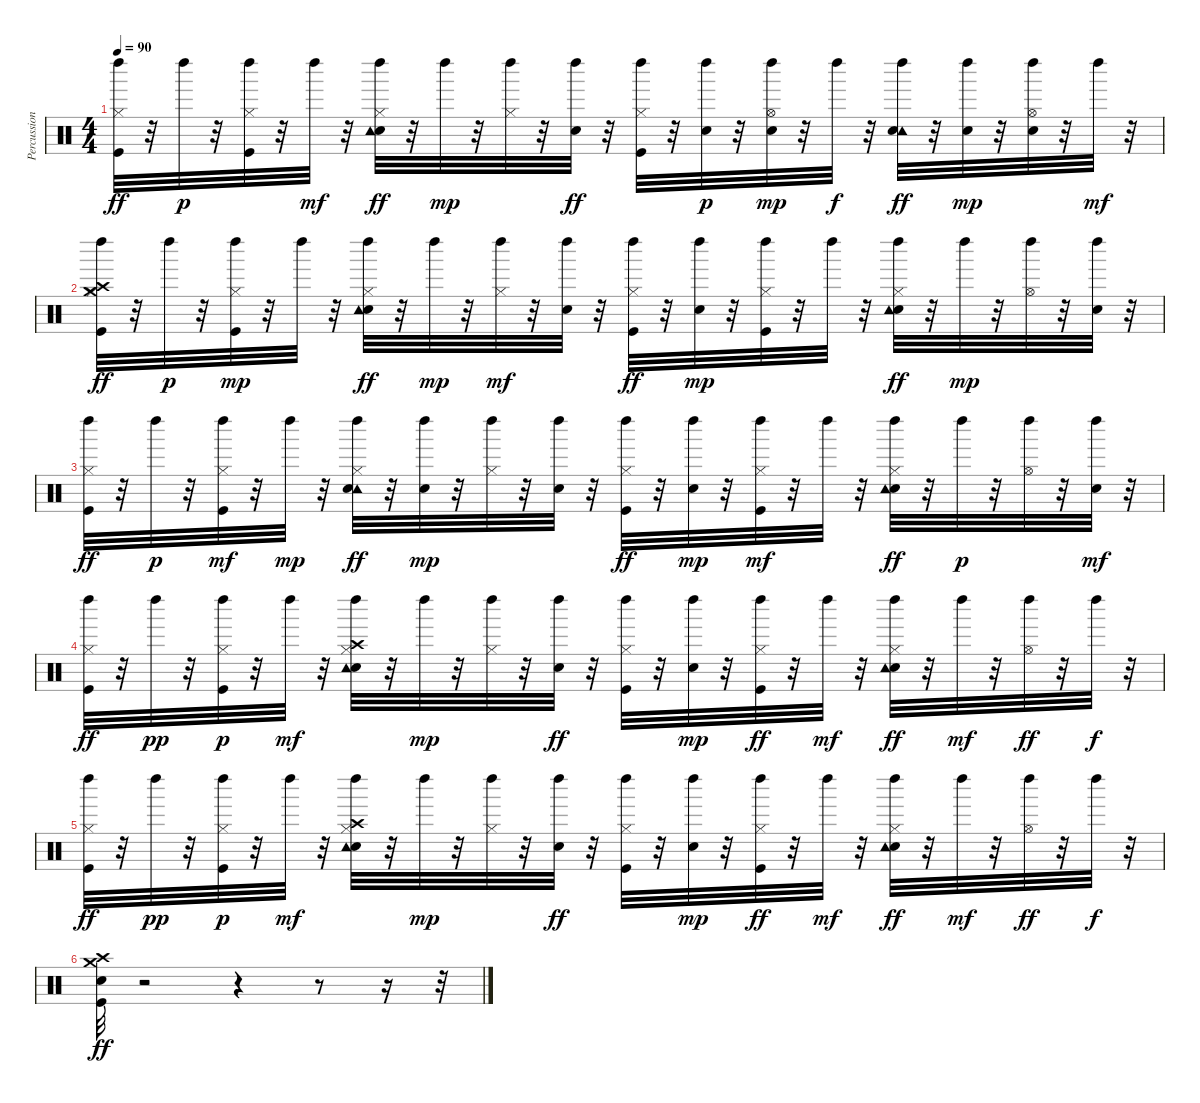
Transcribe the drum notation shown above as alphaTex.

\track ("Percussions" "Percussion") {instrument percussion}
\staff {score}
\articulation defaults
\ts (4 4)
\tempo 90
\clef neutral
\ks c
("Kick (hit)" "Left Maraca (hit)" "Hi-Hat (closed)").32{dy ff} r.32 "Left Maraca (hit)".32{dy p} r.32 ("Hi-Hat (closed)" "Kick (hit)" "Left Maraca (hit)").32 r.32 "Left Maraca (hit)".32{dy mf} r.32 ("Electric Snare (hit)" "Tambourine (hit)" "Hi-Hat (closed)" "Left Maraca (hit)").32{dy ff} r.32 "Left Maraca (hit)".32{dy mp} r.32 ("Hi-Hat (closed)" "Left Maraca (hit)").32 r.32 ("Left Maraca (hit)" "Electric Snare (hit)").32{dy ff} r.32 ("Kick (hit)" "Hi-Hat (closed)" "Left Maraca (hit)").32 r.32 ("Electric Snare (hit)" "Left Maraca (hit)").32{dy p} r.32 ("Hi-Hat (open)" "Electric Snare (hit)" "Left Maraca (hit)").32{dy mp} r.32 "Left Maraca (hit)".32{dy f} r.32 ("Tambourine (hit)" "Left Maraca (hit)" "Electric Snare (hit)").32{dy ff} r.32 ("Electric Snare (hit)" "Left Maraca (hit)").32{dy mp} r.32 ("Hi-Hat (open)" "Electric Snare (hit)" "Left Maraca (hit)").32 r.32 "Left Maraca (hit)".32{dy mf} r.32 |
("Hi-Hat (closed)" "Crash medium (hit)" "Crash high (hit)" "Kick (hit)" "Left Maraca (hit)").32{dy ff} r.32 "Left Maraca (hit)".32{dy p} r.32 ("Hi-Hat (closed)" "Kick (hit)" "Left Maraca (hit)").32{dy mp} r.32 "Left Maraca (hit)".32 r.32 ("Hi-Hat (closed)" "Electric Snare (hit)" "Tambourine (hit)" "Left Maraca (hit)").32{dy ff} r.32 "Left Maraca (hit)".32{dy mp} r.32 ("Hi-Hat (closed)" "Left Maraca (hit)").32{dy mf} r.32 ("Electric Snare (hit)" "Left Maraca (hit)").32 r.32 ("Kick (hit)" "Hi-Hat (closed)" "Left Maraca (hit)").32{dy ff} r.32 ("Electric Snare (hit)" "Left Maraca (hit)").32{dy mp} r.32 ("Hi-Hat (closed)" "Kick (hit)" "Left Maraca (hit)").32 r.32 "Left Maraca (hit)".32 r.32 ("Electric Snare (hit)" "Left Maraca (hit)" "Hi-Hat (closed)" "Tambourine (hit)").32{dy ff} r.32 "Left Maraca (hit)".32{dy mp} r.32 ("Hi-Hat (open)" "Left Maraca (hit)").32 r.32 ("Electric Snare (hit)" "Left Maraca (hit)").32 r.32 |
("Hi-Hat (closed)" "Kick (hit)" "Left Maraca (hit)").32{dy ff} r.32 "Left Maraca (hit)".32{dy p} r.32 ("Hi-Hat (closed)" "Kick (hit)" "Left Maraca (hit)").32{dy mf} r.32 "Left Maraca (hit)".32{dy mp} r.32 ("Hi-Hat (closed)" "Tambourine (hit)" "Electric Snare (hit)" "Left Maraca (hit)").32{dy ff} r.32 ("Electric Snare (hit)" "Left Maraca (hit)").32{dy mp} r.32 ("Hi-Hat (closed)" "Left Maraca (hit)").32 r.32 ("Electric Snare (hit)" "Left Maraca (hit)").32 r.32 ("Kick (hit)" "Left Maraca (hit)" "Hi-Hat (closed)").32{dy ff} r.32 ("Electric Snare (hit)" "Left Maraca (hit)").32{dy mp} r.32 ("Kick (hit)" "Left Maraca (hit)" "Hi-Hat (closed)").32{dy mf} r.32 "Left Maraca (hit)".32 r.32 ("Electric Snare (hit)" "Tambourine (hit)" "Left Maraca (hit)" "Hi-Hat (closed)").32{dy ff} r.32 "Left Maraca (hit)".32{dy p} r.32 ("Hi-Hat (open)" "Left Maraca (hit)").32 r.32 ("Electric Snare (hit)" "Left Maraca (hit)").32{dy mf} r.32 |
("Left Maraca (hit)" "Hi-Hat (closed)" "Kick (hit)").32{dy ff} r.32 "Left Maraca (hit)".32{dy pp} r.32 ("Hi-Hat (closed)" "Kick (hit)" "Left Maraca (hit)").32{dy p} r.32 "Left Maraca (hit)".32{dy mf} r.32 ("Hi-Hat (closed)" "Electric Snare (hit)" "Left Maraca (hit)" "Crash high (hit)" "Tambourine (hit)").32 r.32 "Left Maraca (hit)".32{dy mp} r.32 ("Hi-Hat (closed)" "Left Maraca (hit)").32 r.32 ("Electric Snare (hit)" "Left Maraca (hit)").32{dy ff} r.32 ("Hi-Hat (closed)" "Kick (hit)" "Left Maraca (hit)").32 r.32 ("Electric Snare (hit)" "Left Maraca (hit)").32{dy mp} r.32 ("Hi-Hat (closed)" "Left Maraca (hit)" "Kick (hit)").32{dy ff} r.32 "Left Maraca (hit)".32{dy mf} r.32 ("Hi-Hat (closed)" "Electric Snare (hit)" "Tambourine (hit)" "Left Maraca (hit)").32{dy ff} r.32 "Left Maraca (hit)".32{dy mf} r.32 ("Hi-Hat (open)" "Left Maraca (hit)").32{dy ff} r.32 "Left Maraca (hit)".32{dy f} r.32 |
("Left Maraca (hit)" "Hi-Hat (closed)" "Kick (hit)").32{dy ff} r.32 "Left Maraca (hit)".32{dy pp} r.32 ("Hi-Hat (closed)" "Kick (hit)" "Left Maraca (hit)").32{dy p} r.32 "Left Maraca (hit)".32{dy mf} r.32 ("Hi-Hat (closed)" "Electric Snare (hit)" "Left Maraca (hit)" "Crash high (hit)" "Tambourine (hit)").32 r.32 "Left Maraca (hit)".32{dy mp} r.32 ("Hi-Hat (closed)" "Left Maraca (hit)").32 r.32 ("Electric Snare (hit)" "Left Maraca (hit)").32{dy ff} r.32 ("Hi-Hat (closed)" "Kick (hit)" "Left Maraca (hit)").32 r.32 ("Electric Snare (hit)" "Left Maraca (hit)").32{dy mp} r.32 ("Hi-Hat (closed)" "Left Maraca (hit)" "Kick (hit)").32{dy ff} r.32 "Left Maraca (hit)".32{dy mf} r.32 ("Hi-Hat (closed)" "Electric Snare (hit)" "Tambourine (hit)" "Left Maraca (hit)").32{dy ff} r.32 "Left Maraca (hit)".32{dy mf} r.32 ("Hi-Hat (open)" "Left Maraca (hit)").32{dy ff} r.32 "Left Maraca (hit)".32{dy f} r.32 |
("Crash high (hit)" "Crash medium (hit)" "Electric Snare (hit)" "Kick (hit)").32{dy ff} r.2 r.4 r.8 r.16 r.32
